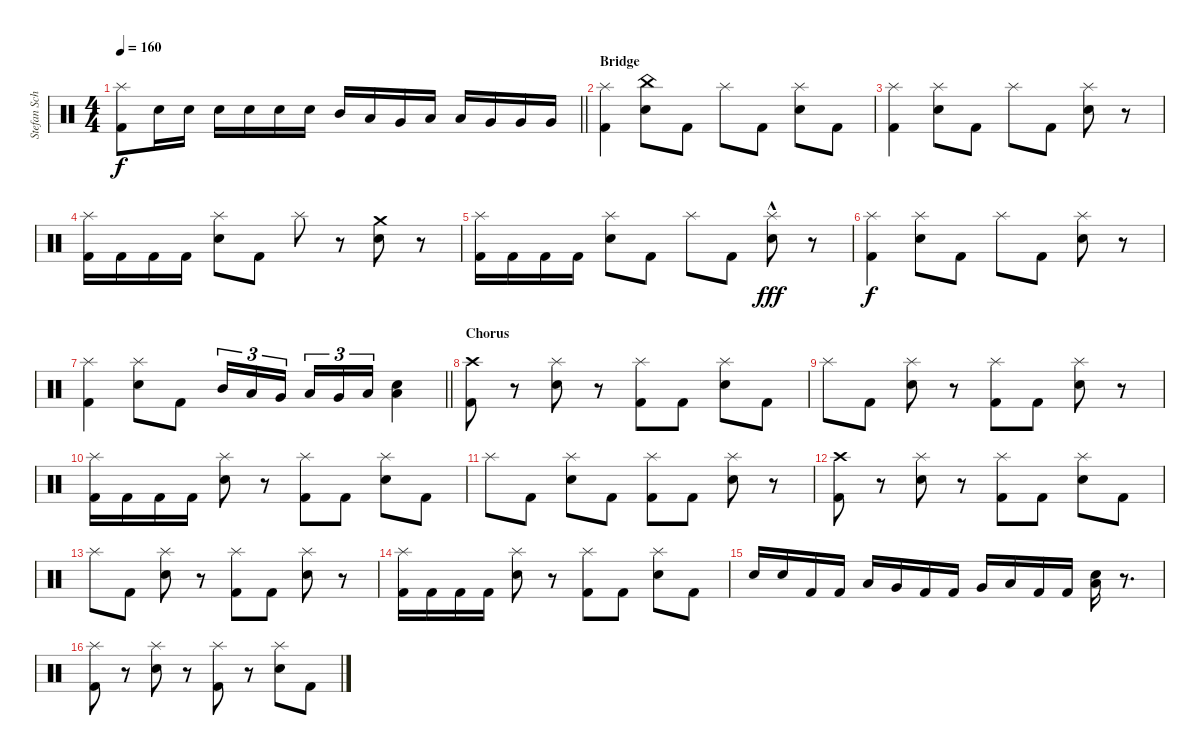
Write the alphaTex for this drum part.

\track ("Stefan Schwarzmann" "Stefan Sch") {instrument percussion}
\staff {score}
\articulation defaults
\ts (4 4)
\tempo 160
\clef neutral
\barLineRight lightlight
\ks c
("Splash (hit)" "Kick (hit) 2").8{dy f} "Snare (hit) 2".16 "Snare (hit) 2".16 "Snare (hit) 2".16 "Snare (hit) 2".16 "Snare (hit) 2".16 "Snare (hit) 2".16 "Mid Tom (hit)".16 "Low Tom (hit)".16 "Very Low Tom (hit)".16 "Low Floor Tom (hit)".16 "Low Floor Tom (hit)".16 "Very Low Tom (hit)".16 "Very Low Tom (hit)".16 "Very Low Tom (hit)".16 |
\section ("" "Bridge")
("Splash (hit)" "Kick (hit) 2").4 ("China (hit)" "Snare (hit) 2").8 "Kick (hit) 2".8 "Splash (hit)".8 "Kick (hit) 2".8 ("Splash (hit)" "Snare (hit) 2").8 "Kick (hit) 2".8 |
("Splash (hit)" "Kick (hit) 2").4 ("Splash (hit)" "Snare (hit) 2").8 "Kick (hit) 2".8 "Splash (hit)".8 "Kick (hit) 2".8 ("Splash (hit)" "Snare (hit) 2").8 r.8 |
("Splash (hit)" "Kick (hit) 2").16 "Kick (hit) 2".16 "Kick (hit) 2".16 "Kick (hit) 2".16 ("Splash (hit)" "Snare (hit) 2").8 "Kick (hit) 2".8 "Splash (hit)".8 r.8 ("Crash medium (hit)" "Snare (hit) 2").8 r.8 |
("Splash (hit)" "Kick (hit) 2").16 "Kick (hit) 2".16 "Kick (hit) 2".16 "Kick (hit) 2".16 ("Splash (hit)" "Snare (hit) 2").8 "Kick (hit) 2".8 "Splash (hit)".8 "Kick (hit) 2".8 ("Splash (hit)"{hac} "Snare (hit) 2").8{dy fff} r.8 |
("Splash (hit)" "Kick (hit) 2").4{dy f} ("Splash (hit)" "Snare (hit) 2").8 "Kick (hit) 2".8 "Splash (hit)".8 "Kick (hit) 2".8 ("Splash (hit)" "Snare (hit) 2").8 r.8 |
\barLineRight lightlight
("Splash (hit)" "Kick (hit) 2").4 ("Splash (hit)" "Snare (hit) 2").8 "Kick (hit) 2".8 "Mid Tom (hit)".16{tu (3 2)} "Low Tom (hit)".16{tu (3 2)} "Very Low Tom (hit)".16{tu (3 2) beam splitsecondary} "Low Floor Tom (hit)".16{tu (3 2)} "Very Low Tom (hit)".16{tu (3 2)} "Low Tom (hit)".16{tu (3 2)} ("Snare (hit) 2" "Low Floor Tom (hit)").4 |
\section ("" "Chorus")
("Crash high (hit)" "Kick (hit) 2").8 r.8 ("Splash (hit)" "Snare (hit) 2").8 r.8 ("Splash (hit)" "Kick (hit) 2").8 "Kick (hit) 2".8 ("Splash (hit)" "Snare (hit) 2").8 "Kick (hit) 2".8 |
"Splash (hit)".8 "Kick (hit) 2".8 ("Splash (hit)" "Snare (hit) 2").8 r.8 ("Splash (hit)" "Kick (hit) 2").8 "Kick (hit) 2".8 ("Splash (hit)" "Snare (hit) 2").8 r.8 |
("Splash (hit)" "Kick (hit) 2").16 "Kick (hit) 2".16 "Kick (hit) 2".16 "Kick (hit) 2".16 ("Splash (hit)" "Snare (hit) 2").8 r.8 ("Splash (hit)" "Kick (hit) 2").8 "Kick (hit) 2".8 ("Splash (hit)" "Snare (hit) 2").8 "Kick (hit) 2".8 |
"Splash (hit)".8 "Kick (hit) 2".8 ("Splash (hit)" "Snare (hit) 2").8 "Kick (hit) 2".8 ("Splash (hit)" "Kick (hit) 2").8 "Kick (hit) 2".8 ("Splash (hit)" "Snare (hit) 2").8 r.8 |
("Crash high (hit)" "Kick (hit) 2").8 r.8 ("Splash (hit)" "Snare (hit) 2").8 r.8 ("Splash (hit)" "Kick (hit) 2").8 "Kick (hit) 2".8 ("Splash (hit)" "Snare (hit) 2").8 "Kick (hit) 2".8 |
"Splash (hit)".8 "Kick (hit) 2".8 ("Splash (hit)" "Snare (hit) 2").8 r.8 ("Splash (hit)" "Kick (hit) 2").8 "Kick (hit) 2".8 ("Splash (hit)" "Snare (hit) 2").8 r.8 |
("Splash (hit)" "Kick (hit) 2").16 "Kick (hit) 2".16 "Kick (hit) 2".16 "Kick (hit) 2".16 ("Splash (hit)" "Snare (hit) 2").8 r.8 ("Splash (hit)" "Kick (hit) 2").8 "Kick (hit) 2".8 ("Splash (hit)" "Snare (hit) 2").8 "Kick (hit) 2".8 |
"Snare (hit) 2".16 "Snare (hit) 2".16 "Kick (hit) 2".16 "Kick (hit) 2".16 "Low Tom (hit)".16 "Very Low Tom (hit)".16 "Kick (hit) 2".16 "Kick (hit) 2".16 "Very Low Tom (hit)".16 "Low Floor Tom (hit)".16 "Kick (hit) 2".16 "Kick (hit) 2".16 ("Low Floor Tom (hit)" "Snare (hit) 2").16 r.8{d} |
("Splash (hit)" "Kick (hit) 2").8 r.8 ("Splash (hit)" "Snare (hit) 2").8 r.8 ("Splash (hit)" "Kick (hit) 2").8 r.8 ("Splash (hit)" "Snare (hit) 2").8 "Kick (hit) 2".8
